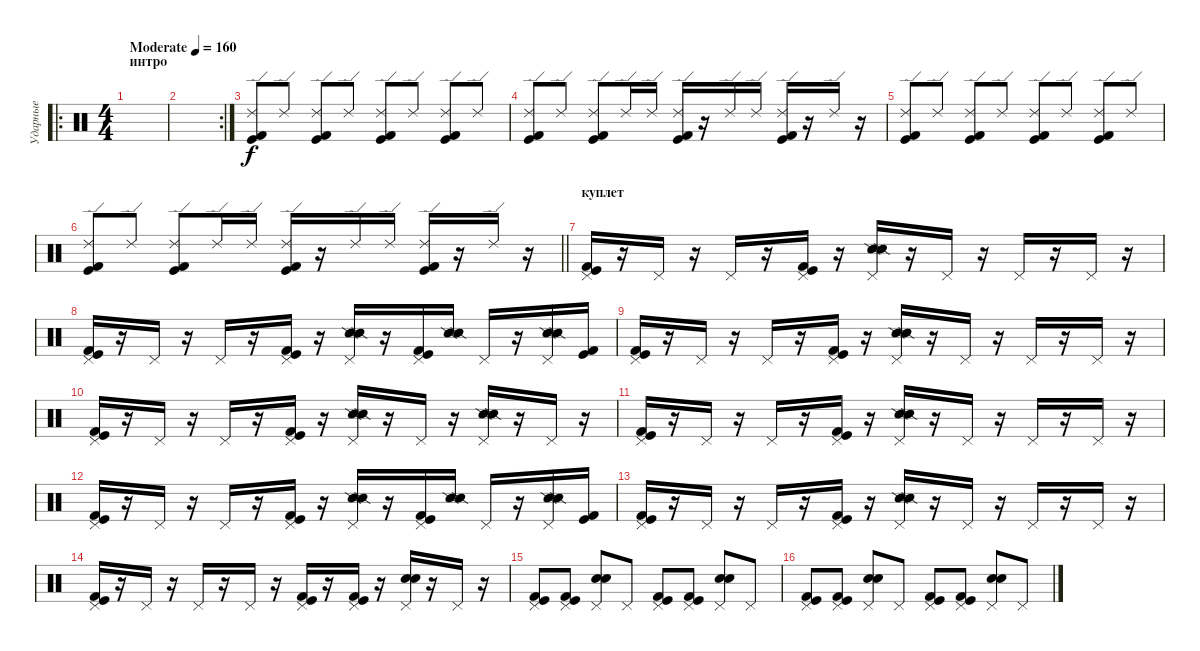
\track ("Ударные" "Ударные") {instrument percussion}
\staff {score}
\articulation defaults
\ro
\ts (4 4)
\section ("" "интро")
\tempo (160 "Moderate")
\clef neutral
\ks c
|
\rc 2
|
("Ride (edge) 2" "Kick (hit) 2" "Kick (hit)").8 "Ride (edge) 2".8 ("Ride (edge) 2" "Kick (hit) 2" "Kick (hit)").8 "Ride (edge) 2".8 ("Ride (edge) 2" "Kick (hit) 2" "Kick (hit)").8 "Ride (edge) 2".8 ("Ride (edge) 2" "Kick (hit) 2" "Kick (hit)").8 "Ride (edge) 2".8 |
("Ride (edge) 2" "Kick (hit) 2" "Kick (hit)").8 "Ride (edge) 2".8 ("Ride (edge) 2" "Kick (hit) 2" "Kick (hit)").8 "Ride (edge) 2".16 "Ride (edge) 2".16 ("Ride (edge) 2" "Kick (hit) 2" "Kick (hit)").16 r.16 "Ride (edge) 2".16 "Ride (edge) 2".16 ("Ride (edge) 2" "Kick (hit) 2" "Kick (hit)").16 r.16 "Ride (edge) 2".16 r.16 |
("Ride (edge) 2" "Kick (hit) 2" "Kick (hit)").8 "Ride (edge) 2".8 ("Ride (edge) 2" "Kick (hit) 2" "Kick (hit)").8 "Ride (edge) 2".8 ("Ride (edge) 2" "Kick (hit) 2" "Kick (hit)").8 "Ride (edge) 2".8 ("Ride (edge) 2" "Kick (hit) 2" "Kick (hit)").8 "Ride (edge) 2".8 |
\barLineRight lightlight
("Ride (edge) 2" "Kick (hit) 2" "Kick (hit)").8 "Ride (edge) 2".8 ("Ride (edge) 2" "Kick (hit) 2" "Kick (hit)").8 "Ride (edge) 2".16 "Ride (edge) 2".16 ("Ride (edge) 2" "Kick (hit) 2" "Kick (hit)").16 r.16 "Ride (edge) 2".16 "Ride (edge) 2".16 ("Ride (edge) 2" "Kick (hit) 2" "Kick (hit)").16 r.16 "Ride (edge) 2".16 r.16 |
\section ("" "куплет")
("Pedal Hi-Hat (hit)" "Kick (hit)" "Kick (hit) 2").16 r.16 "Pedal Hi-Hat (hit)".16 r.16 "Pedal Hi-Hat (hit)".16 r.16 ("Pedal Hi-Hat (hit)" "Kick (hit)" "Kick (hit) 2").16 r.16 ("Pedal Hi-Hat (hit)" "Snare (side stick) 2" "Snare (side stick) 2").16 r.16 "Pedal Hi-Hat (hit)".16 r.16 "Pedal Hi-Hat (hit)".16 r.16 "Pedal Hi-Hat (hit)".16 r.16 |
("Pedal Hi-Hat (hit)" "Kick (hit)" "Kick (hit) 2").16 r.16 "Pedal Hi-Hat (hit)".16 r.16 "Pedal Hi-Hat (hit)".16 r.16 ("Pedal Hi-Hat (hit)" "Kick (hit)" "Kick (hit) 2").16 r.16 ("Pedal Hi-Hat (hit)" "Snare (side stick) 2" "Snare (side stick) 2").16 r.16 ("Pedal Hi-Hat (hit)" "Kick (hit)" "Kick (hit) 2").16 ("Snare (side stick) 2" "Snare (side stick) 2").16 "Pedal Hi-Hat (hit)".16 r.16 ("Pedal Hi-Hat (hit)" "Snare (side stick) 2" "Snare (side stick) 2").16 ("Kick (hit)" "Kick (hit) 2").16 |
("Pedal Hi-Hat (hit)" "Kick (hit)" "Kick (hit) 2").16 r.16 "Pedal Hi-Hat (hit)".16 r.16 "Pedal Hi-Hat (hit)".16 r.16 ("Pedal Hi-Hat (hit)" "Kick (hit)" "Kick (hit) 2").16 r.16 ("Pedal Hi-Hat (hit)" "Snare (side stick) 2" "Snare (side stick) 2").16 r.16 "Pedal Hi-Hat (hit)".16 r.16 "Pedal Hi-Hat (hit)".16 r.16 "Pedal Hi-Hat (hit)".16 r.16 |
("Pedal Hi-Hat (hit)" "Kick (hit)" "Kick (hit) 2").16 r.16 "Pedal Hi-Hat (hit)".16 r.16 "Pedal Hi-Hat (hit)".16 r.16 ("Pedal Hi-Hat (hit)" "Kick (hit)" "Kick (hit) 2").16 r.16 ("Pedal Hi-Hat (hit)" "Snare (side stick) 2" "Snare (side stick) 2").16 r.16 "Pedal Hi-Hat (hit)".16 r.16 ("Pedal Hi-Hat (hit)" "Snare (side stick) 2" "Snare (side stick) 2").16 r.16 "Pedal Hi-Hat (hit)".16 r.16 |
("Pedal Hi-Hat (hit)" "Kick (hit)" "Kick (hit) 2").16 r.16 "Pedal Hi-Hat (hit)".16 r.16 "Pedal Hi-Hat (hit)".16 r.16 ("Pedal Hi-Hat (hit)" "Kick (hit)" "Kick (hit) 2").16 r.16 ("Pedal Hi-Hat (hit)" "Snare (side stick) 2" "Snare (side stick) 2").16 r.16 "Pedal Hi-Hat (hit)".16 r.16 "Pedal Hi-Hat (hit)".16 r.16 "Pedal Hi-Hat (hit)".16 r.16 |
("Pedal Hi-Hat (hit)" "Kick (hit)" "Kick (hit) 2").16 r.16 "Pedal Hi-Hat (hit)".16 r.16 "Pedal Hi-Hat (hit)".16 r.16 ("Pedal Hi-Hat (hit)" "Kick (hit)" "Kick (hit) 2").16 r.16 ("Pedal Hi-Hat (hit)" "Snare (side stick) 2" "Snare (side stick) 2").16 r.16 ("Pedal Hi-Hat (hit)" "Kick (hit)" "Kick (hit) 2").16 ("Snare (side stick) 2" "Snare (side stick) 2").16 "Pedal Hi-Hat (hit)".16 r.16 ("Pedal Hi-Hat (hit)" "Snare (side stick) 2" "Snare (side stick) 2").16 ("Kick (hit)" "Kick (hit) 2").16 |
("Pedal Hi-Hat (hit)" "Kick (hit)" "Kick (hit) 2").16 r.16 "Pedal Hi-Hat (hit)".16 r.16 "Pedal Hi-Hat (hit)".16 r.16 ("Pedal Hi-Hat (hit)" "Kick (hit)" "Kick (hit) 2").16 r.16 ("Pedal Hi-Hat (hit)" "Snare (side stick) 2" "Snare (side stick) 2").16 r.16 "Pedal Hi-Hat (hit)".16 r.16 "Pedal Hi-Hat (hit)".16 r.16 "Pedal Hi-Hat (hit)".16 r.16 |
("Pedal Hi-Hat (hit)" "Kick (hit)" "Kick (hit) 2").16 r.16 "Pedal Hi-Hat (hit)".16 r.16 "Pedal Hi-Hat (hit)".16 r.16 "Pedal Hi-Hat (hit)".16 r.16 ("Pedal Hi-Hat (hit)" "Kick (hit)" "Kick (hit) 2").16 r.16 ("Pedal Hi-Hat (hit)" "Kick (hit)" "Kick (hit) 2").16 r.16 ("Pedal Hi-Hat (hit)" "Snare (hit) 2" "Electric Snare (hit)").16 r.16 "Pedal Hi-Hat (hit)".16 r.16 |
("Pedal Hi-Hat (hit)" "Kick (hit)" "Kick (hit) 2").8 ("Pedal Hi-Hat (hit)" "Kick (hit)" "Kick (hit) 2").8 ("Pedal Hi-Hat (hit)" "Snare (hit) 2" "Electric Snare (hit)").8 "Pedal Hi-Hat (hit)".8 ("Pedal Hi-Hat (hit)" "Kick (hit)" "Kick (hit) 2").8 ("Pedal Hi-Hat (hit)" "Kick (hit)" "Kick (hit) 2").8 ("Pedal Hi-Hat (hit)" "Snare (hit) 2" "Electric Snare (hit)").8 "Pedal Hi-Hat (hit)".8 |
("Pedal Hi-Hat (hit)" "Kick (hit)" "Kick (hit) 2").8 ("Pedal Hi-Hat (hit)" "Kick (hit)" "Kick (hit) 2").8 ("Pedal Hi-Hat (hit)" "Snare (hit) 2" "Electric Snare (hit)").8 "Pedal Hi-Hat (hit)".8 ("Pedal Hi-Hat (hit)" "Kick (hit)" "Kick (hit) 2").8 ("Pedal Hi-Hat (hit)" "Kick (hit)" "Kick (hit) 2").8 ("Pedal Hi-Hat (hit)" "Snare (hit) 2" "Electric Snare (hit)").8 "Pedal Hi-Hat (hit)".8
